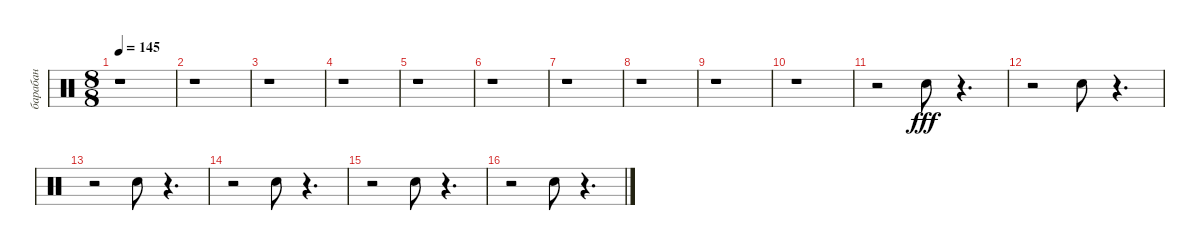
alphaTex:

\track ("барабан" "барабан") {instrument percussion}
\staff {score}
\articulation defaults
\ts (8 8)
\tempo 145
\clef neutral
\ks c
r.1{dy fff} |
r.1 |
r.1 |
r.1 |
r.1 |
r.1 |
r.1 |
r.1 |
r.1 |
r.1 |
r.2 "Snare (hit) 2".8 r.4{d} |
r.2 "Snare (hit) 2".8 r.4{d} |
r.2 "Snare (hit) 2".8 r.4{d} |
r.2 "Snare (hit) 2".8 r.4{d} |
r.2 "Snare (hit) 2".8 r.4{d} |
r.2 "Snare (hit) 2".8 r.4{d}
